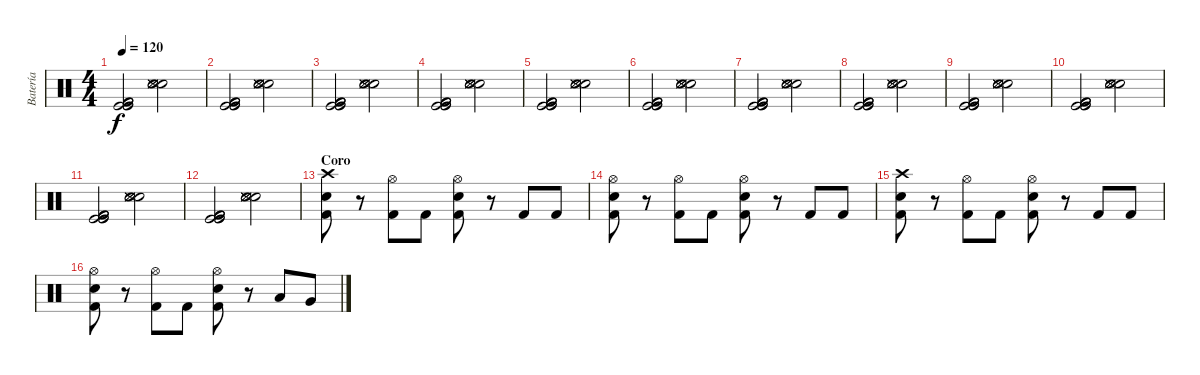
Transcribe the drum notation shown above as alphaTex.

\track ("Batería" "Batería") {instrument percussion}
\staff {score}
\articulation defaults
\ts (4 4)
\tempo 120
\clef neutral
\ks c
("Kick (hit) 2" "Kick (hit)" "Kick (hit) 2" "Kick (hit)" "Kick (hit) 2" "Kick (hit)").2{dy f} ("Electric Snare (hit)" "Snare (side stick) 3" "Snare (side stick) 3" "Snare (hit) 2" "Snare (side stick) 3" "Snare (hit) 2").2 |
("Kick (hit) 2" "Kick (hit)" "Kick (hit) 2" "Kick (hit)" "Kick (hit) 2" "Kick (hit)").2 ("Electric Snare (hit)" "Snare (side stick) 3" "Snare (side stick) 3" "Snare (hit) 2" "Snare (side stick) 3" "Snare (hit) 2").2 |
("Kick (hit) 2" "Kick (hit)" "Kick (hit) 2" "Kick (hit)" "Kick (hit) 2" "Kick (hit)").2 ("Electric Snare (hit)" "Snare (side stick) 3" "Snare (side stick) 3" "Snare (hit) 2" "Snare (side stick) 3" "Snare (hit) 2").2 |
("Kick (hit) 2" "Kick (hit)" "Kick (hit) 2" "Kick (hit)" "Kick (hit) 2" "Kick (hit)").2 ("Electric Snare (hit)" "Snare (side stick) 3" "Snare (side stick) 3" "Snare (hit) 2" "Snare (side stick) 3" "Snare (hit) 2").2 |
("Kick (hit) 2" "Kick (hit)" "Kick (hit) 2" "Kick (hit)" "Kick (hit) 2" "Kick (hit)").2 ("Electric Snare (hit)" "Snare (side stick) 3" "Snare (side stick) 3" "Snare (hit) 2" "Snare (side stick) 3" "Snare (hit) 2").2 |
("Kick (hit) 2" "Kick (hit)" "Kick (hit) 2" "Kick (hit)" "Kick (hit) 2" "Kick (hit)").2 ("Electric Snare (hit)" "Snare (side stick) 3" "Snare (side stick) 3" "Snare (hit) 2" "Snare (side stick) 3" "Snare (hit) 2").2 |
("Kick (hit) 2" "Kick (hit)" "Kick (hit) 2" "Kick (hit)" "Kick (hit) 2" "Kick (hit)").2 ("Electric Snare (hit)" "Snare (side stick) 3" "Snare (side stick) 3" "Snare (hit) 2" "Snare (side stick) 3" "Snare (hit) 2").2 |
("Kick (hit) 2" "Kick (hit)" "Kick (hit) 2" "Kick (hit)" "Kick (hit) 2" "Kick (hit)").2 ("Electric Snare (hit)" "Snare (side stick) 3" "Snare (side stick) 3" "Snare (hit) 2" "Snare (side stick) 3" "Snare (hit) 2").2 |
("Kick (hit) 2" "Kick (hit)" "Kick (hit) 2" "Kick (hit)" "Kick (hit) 2" "Kick (hit)").2 ("Electric Snare (hit)" "Snare (side stick) 3" "Snare (side stick) 3" "Snare (hit) 2" "Snare (side stick) 3" "Snare (hit) 2").2 |
("Kick (hit) 2" "Kick (hit)" "Kick (hit) 2" "Kick (hit)" "Kick (hit) 2" "Kick (hit)").2 ("Electric Snare (hit)" "Snare (side stick) 3" "Snare (side stick) 3" "Snare (hit) 2" "Snare (side stick) 3" "Snare (hit) 2").2 |
("Kick (hit) 2" "Kick (hit)" "Kick (hit) 2" "Kick (hit)" "Kick (hit) 2" "Kick (hit)").2 ("Electric Snare (hit)" "Snare (side stick) 3" "Snare (side stick) 3" "Snare (hit) 2" "Snare (side stick) 3" "Snare (hit) 2").2 |
("Kick (hit) 2" "Kick (hit)" "Kick (hit) 2" "Kick (hit)" "Kick (hit) 2" "Kick (hit)").2 ("Electric Snare (hit)" "Snare (side stick) 3" "Snare (side stick) 3" "Snare (hit) 2" "Snare (side stick) 3" "Snare (hit) 2").2 |
\section ("" "Coro")
("Crash high (hit)" "Electric Snare (hit)" "Kick (hit) 2").8 r.8 ("Hi-Hat (open)" "Kick (hit) 2").8 "Kick (hit) 2".8 ("Electric Snare (hit)" "Hi-Hat (open)" "Kick (hit) 2").8 r.8 "Kick (hit) 2".8 "Kick (hit) 2".8 |
("Hi-Hat (open)" "Electric Snare (hit)" "Kick (hit) 2").8 r.8 ("Hi-Hat (open)" "Kick (hit) 2").8 "Kick (hit) 2".8 ("Electric Snare (hit)" "Hi-Hat (open)" "Kick (hit) 2").8 r.8 "Kick (hit) 2".8 "Kick (hit) 2".8 |
("Crash high (hit)" "Electric Snare (hit)" "Kick (hit) 2").8 r.8 ("Hi-Hat (open)" "Kick (hit) 2").8 "Kick (hit) 2".8 ("Electric Snare (hit)" "Hi-Hat (open)" "Kick (hit) 2").8 r.8 "Kick (hit) 2".8 "Kick (hit) 2".8 |
("Hi-Hat (open)" "Electric Snare (hit)" "Kick (hit) 2").8 r.8 ("Hi-Hat (open)" "Kick (hit) 2").8 "Kick (hit) 2".8 ("Electric Snare (hit)" "Hi-Hat (open)" "Kick (hit) 2").8 r.8 "Low Tom (hit)".8 "Very Low Tom (hit)".8
